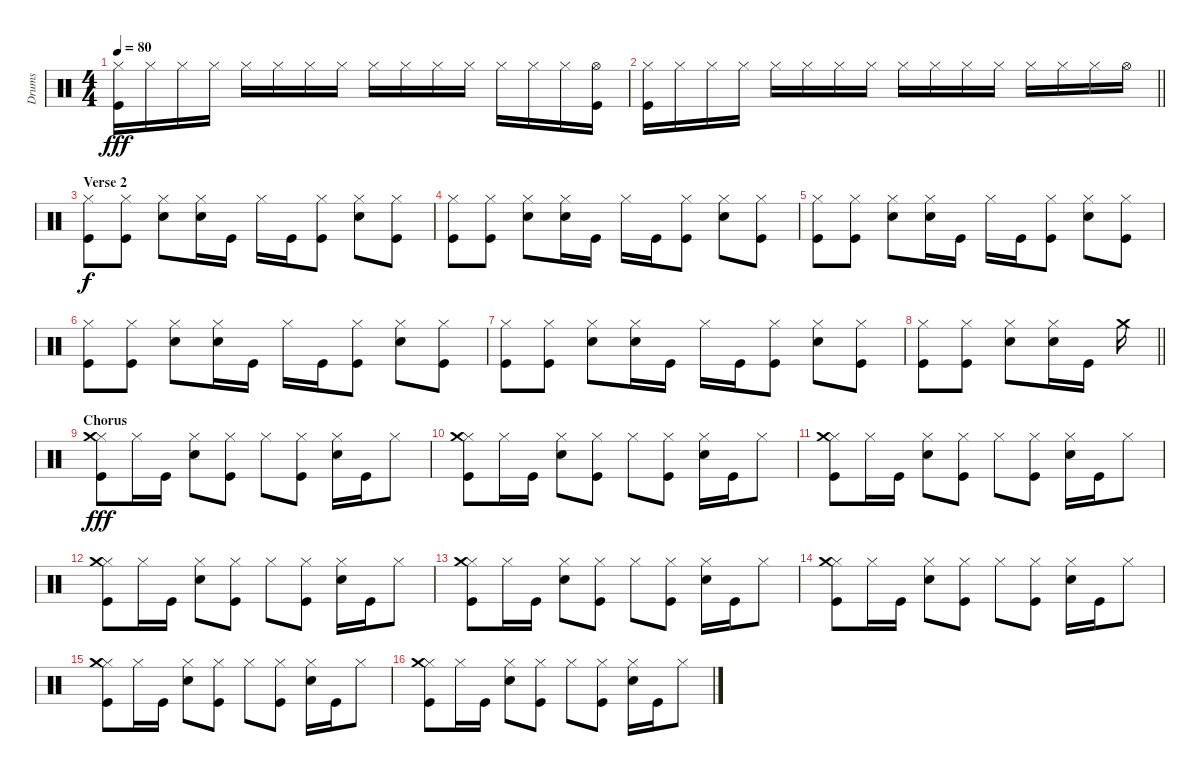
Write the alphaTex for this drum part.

\track ("Drums" "Drums") {instrument percussion}
\staff {score}
\articulation defaults
\ts (4 4)
\tempo 80
\clef neutral
\ks c
("Hi-Hat (closed)" "Kick (hit)").16{dy fff} "Hi-Hat (closed)".16 "Hi-Hat (closed)".16 "Hi-Hat (closed)".16 "Hi-Hat (closed)".16 "Hi-Hat (closed)".16 "Hi-Hat (closed)".16 "Hi-Hat (closed)".16 "Hi-Hat (closed)".16 "Hi-Hat (closed)".16 "Hi-Hat (closed)".16 "Hi-Hat (closed)".16 "Hi-Hat (closed)".16 "Hi-Hat (closed)".16 "Hi-Hat (closed)".16 ("Hi-Hat (open)" "Kick (hit)").16 |
\barLineRight lightlight
("Hi-Hat (closed)" "Kick (hit)").16 "Hi-Hat (closed)".16 "Hi-Hat (closed)".16 "Hi-Hat (closed)".16 "Hi-Hat (closed)".16 "Hi-Hat (closed)".16 "Hi-Hat (closed)".16 "Hi-Hat (closed)".16 "Hi-Hat (closed)".16 "Hi-Hat (closed)".16 "Hi-Hat (closed)".16 "Hi-Hat (closed)".16 "Hi-Hat (closed)".16 "Hi-Hat (closed)".16 "Hi-Hat (closed)".16 "Hi-Hat (open)".16 |
\section ("" "Verse 2")
("Hi-Hat (closed)" "Kick (hit)").8{dy f} ("Hi-Hat (closed)" "Kick (hit)").8 ("Hi-Hat (closed)" "Snare (hit) 2").8 ("Hi-Hat (closed)" "Snare (hit)").16 "Kick (hit)".16 "Hi-Hat (closed)".16 "Kick (hit)".16 ("Hi-Hat (closed)" "Kick (hit)").8 ("Hi-Hat (closed)" "Snare (hit) 2").8 ("Hi-Hat (closed)" "Kick (hit)").8 |
("Hi-Hat (closed)" "Kick (hit)").8 ("Hi-Hat (closed)" "Kick (hit)").8 ("Hi-Hat (closed)" "Snare (hit) 2").8 ("Hi-Hat (closed)" "Snare (hit)").16 "Kick (hit)".16 "Hi-Hat (closed)".16 "Kick (hit)".16 ("Hi-Hat (closed)" "Kick (hit)").8 ("Hi-Hat (closed)" "Snare (hit) 2").8 ("Hi-Hat (closed)" "Kick (hit)").8 |
("Hi-Hat (closed)" "Kick (hit)").8 ("Hi-Hat (closed)" "Kick (hit)").8 ("Hi-Hat (closed)" "Snare (hit) 2").8 ("Hi-Hat (closed)" "Snare (hit)").16 "Kick (hit)".16 "Hi-Hat (closed)".16 "Kick (hit)".16 ("Hi-Hat (closed)" "Kick (hit)").8 ("Hi-Hat (closed)" "Snare (hit) 2").8 ("Hi-Hat (closed)" "Kick (hit)").8 |
("Hi-Hat (closed)" "Kick (hit)").8 ("Hi-Hat (closed)" "Kick (hit)").8 ("Hi-Hat (closed)" "Snare (hit) 2").8 ("Hi-Hat (closed)" "Snare (hit)").16 "Kick (hit)".16 "Hi-Hat (closed)".16 "Kick (hit)".16 ("Hi-Hat (closed)" "Kick (hit)").8 ("Hi-Hat (closed)" "Snare (hit) 2").8 ("Hi-Hat (closed)" "Kick (hit)").8 |
("Hi-Hat (closed)" "Kick (hit)").8 ("Hi-Hat (closed)" "Kick (hit)").8 ("Hi-Hat (closed)" "Snare (hit) 2").8 ("Hi-Hat (closed)" "Snare (hit)").16 "Kick (hit)".16 "Hi-Hat (closed)".16 "Kick (hit)".16 ("Hi-Hat (closed)" "Kick (hit)").8 ("Hi-Hat (closed)" "Snare (hit) 2").8 ("Hi-Hat (closed)" "Kick (hit)").8 |
\barLineRight lightlight
("Hi-Hat (closed)" "Kick (hit)").8 ("Hi-Hat (closed)" "Kick (hit)").8 ("Hi-Hat (closed)" "Snare (hit) 2").8 ("Hi-Hat (closed)" "Snare (hit)").16 "Kick (hit)".16 "Crash medium (hit)".16 |
\section ("" "Chorus")
("Hi-Hat (closed)" "Kick (hit)" "Crash medium (hit)").8{dy fff} "Hi-Hat (closed)".16 "Kick (hit)".16 ("Hi-Hat (closed)" "Snare (hit) 2").8 ("Hi-Hat (closed)" "Kick (hit)").8 "Hi-Hat (closed)".8 ("Hi-Hat (closed)" "Kick (hit)").8 ("Hi-Hat (closed)" "Snare (hit) 2").16 "Kick (hit)".16 "Hi-Hat (closed)".8 |
("Hi-Hat (closed)" "Kick (hit)" "Crash medium (hit)").8 "Hi-Hat (closed)".16 "Kick (hit)".16 ("Hi-Hat (closed)" "Snare (hit) 2").8 ("Hi-Hat (closed)" "Kick (hit)").8 "Hi-Hat (closed)".8 ("Hi-Hat (closed)" "Kick (hit)").8 ("Hi-Hat (closed)" "Snare (hit) 2").16 "Kick (hit)".16 "Hi-Hat (closed)".8 |
("Hi-Hat (closed)" "Kick (hit)" "Crash medium (hit)").8 "Hi-Hat (closed)".16 "Kick (hit)".16 ("Hi-Hat (closed)" "Snare (hit) 2").8 ("Hi-Hat (closed)" "Kick (hit)").8 "Hi-Hat (closed)".8 ("Hi-Hat (closed)" "Kick (hit)").8 ("Hi-Hat (closed)" "Snare (hit) 2").16 "Kick (hit)".16 "Hi-Hat (closed)".8 |
("Hi-Hat (closed)" "Kick (hit)" "Crash medium (hit)").8 "Hi-Hat (closed)".16 "Kick (hit)".16 ("Hi-Hat (closed)" "Snare (hit) 2").8 ("Hi-Hat (closed)" "Kick (hit)").8 "Hi-Hat (closed)".8 ("Hi-Hat (closed)" "Kick (hit)").8 ("Hi-Hat (closed)" "Snare (hit) 2").16 "Kick (hit)".16 "Hi-Hat (closed)".8 |
("Hi-Hat (closed)" "Kick (hit)" "Crash medium (hit)").8 "Hi-Hat (closed)".16 "Kick (hit)".16 ("Hi-Hat (closed)" "Snare (hit) 2").8 ("Hi-Hat (closed)" "Kick (hit)").8 "Hi-Hat (closed)".8 ("Hi-Hat (closed)" "Kick (hit)").8 ("Hi-Hat (closed)" "Snare (hit) 2").16 "Kick (hit)".16 "Hi-Hat (closed)".8 |
("Hi-Hat (closed)" "Kick (hit)" "Crash medium (hit)").8 "Hi-Hat (closed)".16 "Kick (hit)".16 ("Hi-Hat (closed)" "Snare (hit) 2").8 ("Hi-Hat (closed)" "Kick (hit)").8 "Hi-Hat (closed)".8 ("Hi-Hat (closed)" "Kick (hit)").8 ("Hi-Hat (closed)" "Snare (hit) 2").16 "Kick (hit)".16 "Hi-Hat (closed)".8 |
("Hi-Hat (closed)" "Kick (hit)" "Crash medium (hit)").8 "Hi-Hat (closed)".16 "Kick (hit)".16 ("Hi-Hat (closed)" "Snare (hit) 2").8 ("Hi-Hat (closed)" "Kick (hit)").8 "Hi-Hat (closed)".8 ("Hi-Hat (closed)" "Kick (hit)").8 ("Hi-Hat (closed)" "Snare (hit) 2").16 "Kick (hit)".16 "Hi-Hat (closed)".8 |
("Hi-Hat (closed)" "Kick (hit)" "Crash medium (hit)").8 "Hi-Hat (closed)".16 "Kick (hit)".16 ("Hi-Hat (closed)" "Snare (hit) 2").8 ("Hi-Hat (closed)" "Kick (hit)").8 "Hi-Hat (closed)".8 ("Hi-Hat (closed)" "Kick (hit)").8 ("Hi-Hat (closed)" "Snare (hit) 2").16 "Kick (hit)".16 "Hi-Hat (closed)".8
